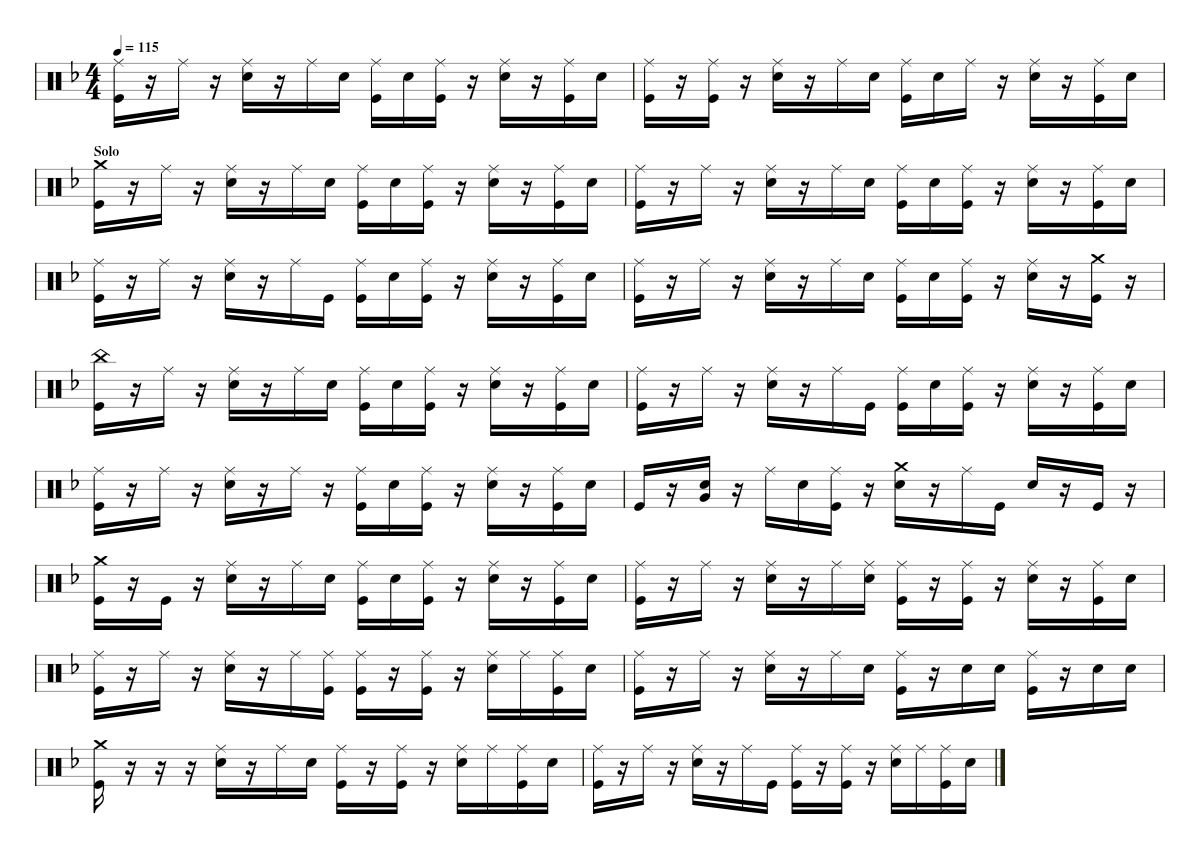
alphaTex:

\hideDynamics
\bracketExtendMode groupsimilarinstruments
\singleTrackTrackNamePolicy hidden
\multiTrackTrackNamePolicy hidden
\firstSystemTrackNameOrientation horizontal
\otherSystemsTrackNameOrientation horizontal
\chordDiagramsInScore
\defaultBarNumberDisplay Hide
\track ("Drumkit" "Drums") {instrument percussion}
\staff {score}
\articulation defaults
\ts (4 4)
\tempo 115
\clef neutral
\ks dminor
("Kick (hit)" "Ride (middle)").16{dy f} r.16 "Ride (middle)".16 r.16 ("Ride (middle)" "Snare (hit) 2").16 r.16 "Ride (middle)".16 "Snare (hit) 2".16 ("Kick (hit)" "Ride (middle)").16 "Snare (hit) 2".16 ("Ride (middle)" "Kick (hit)").16 r.16 ("Ride (middle)" "Snare (hit) 2").16 r.16 ("Ride (middle)" "Kick (hit)").16 "Snare (hit) 2".16 |
("Kick (hit)" "Ride (middle)").16 r.16 ("Ride (middle)" "Kick (hit)").16 r.16 ("Snare (hit) 2" "Ride (middle)").16 r.16 "Ride (middle)".16 "Snare (hit) 2".16 ("Kick (hit)" "Ride (middle)").16 "Snare (hit) 2".16 "Ride (middle)".16 r.16 ("Snare (hit) 2" "Ride (middle)").16 r.16 ("Ride (middle)" "Kick (hit)").16 "Snare (hit) 2".16 |
\section ("" "Solo")
("Kick (hit)" "Crash medium (hit)").16 r.16 "Ride (middle)".16 r.16 ("Ride (middle)" "Snare (hit) 2").16 r.16 "Ride (middle)".16 "Snare (hit) 2".16 ("Kick (hit)" "Ride (middle)").16 "Snare (hit) 2".16 ("Ride (middle)" "Kick (hit)").16 r.16 ("Ride (middle)" "Snare (hit) 2").16 r.16 ("Ride (middle)" "Kick (hit)").16 "Snare (hit) 2".16 |
("Kick (hit)" "Ride (middle)").16 r.16 "Ride (middle)".16 r.16 ("Snare (hit) 2" "Ride (middle)").16 r.16 "Ride (middle)".16 "Snare (hit) 2".16 ("Ride (middle)" "Kick (hit)").16 "Snare (hit) 2".16 ("Ride (middle)" "Kick (hit)").16 r.16 ("Ride (middle)" "Snare (hit) 2").16 r.16 ("Ride (middle)" "Kick (hit)").16 "Snare (hit) 2".16 |
("Kick (hit)" "Ride (middle)").16 r.16 "Ride (middle)".16 r.16 ("Snare (hit) 2" "Ride (middle)").16 r.16 "Ride (middle)".16 "Kick (hit)".16 ("Ride (middle)" "Kick (hit)").16 "Snare (hit) 2".16 ("Kick (hit)" "Ride (middle)").16 r.16 ("Snare (hit) 2" "Ride (middle)").16 r.16 ("Kick (hit)" "Ride (middle)").16 "Snare (hit) 2".16 |
("Ride (middle)" "Kick (hit)").16 r.16 "Ride (middle)".16 r.16 ("Snare (hit) 2" "Ride (middle)").16 r.16 "Ride (middle)".16 "Snare (hit) 2".16 ("Kick (hit)" "Ride (middle)").16 "Snare (hit) 2".16 ("Ride (middle)" "Kick (hit)").16 r.16 ("Snare (hit) 2" "Ride (middle)").16 r.16 ("Kick (hit)" "Crash medium (hit)").16 r.16 |
("China (hit)" "Kick (hit)").16 r.16 "Ride (middle)".16 r.16 ("Ride (middle)" "Snare (hit) 2").16 r.16 "Ride (middle)".16 "Snare (hit) 2".16 ("Kick (hit)" "Ride (middle)").16 "Snare (hit) 2".16 ("Kick (hit)" "Ride (middle)").16 r.16 ("Ride (middle)" "Snare (hit) 2").16 r.16 ("Ride (middle)" "Kick (hit)").16 "Snare (hit) 2".16 |
("Ride (middle)" "Kick (hit)").16 r.16 "Ride (middle)".16 r.16 ("Ride (middle)" "Snare (hit) 2").16 r.16 "Ride (middle)".16 "Kick (hit)".16 ("Ride (middle)" "Kick (hit)").16 "Snare (hit) 2".16 ("Kick (hit)" "Ride (middle)").16 r.16 ("Snare (hit) 2" "Ride (middle)").16 r.16 ("Kick (hit)" "Ride (middle)").16 "Snare (hit) 2".16 |
("Ride (middle)" "Kick (hit)").16 r.16 "Ride (middle)".16 r.16 ("Snare (hit) 2" "Ride (middle)").16 r.16 "Ride (middle)".16 r.16 ("Ride (middle)" "Kick (hit)").16 "Snare (hit) 2".16 ("Kick (hit)" "Ride (middle)").16 r.16 ("Ride (middle)" "Snare (hit) 2").16 r.16 ("Ride (middle)" "Kick (hit)").16 "Snare (hit) 2".16 |
"Kick (hit)".16 r.16 ("Very Low Tom (hit)" "Snare (hit) 2").16 r.16 "Ride (middle)".16 "Snare (hit) 2".16 ("Ride (middle)" "Kick (hit)").16 r.16 ("Crash medium (hit)" "Snare (hit) 2").16 r.16 "Ride (middle)".16 "Kick (hit)".16 "Snare (hit) 2".16 r.16 "Kick (hit)".16 r.16 |
("Crash medium (hit)" "Kick (hit)").16 r.16 "Kick (hit)".16 r.16 ("Ride (middle)" "Snare (hit) 2").16 r.16 "Ride (middle)".16 "Snare (hit) 2".16 ("Ride (middle)" "Kick (hit)").16 "Snare (hit) 2".16 ("Kick (hit)" "Ride (middle)").16 r.16 ("Snare (hit) 2" "Ride (middle)").16 r.16 ("Ride (middle)" "Kick (hit)").16 "Snare (hit) 2".16 |
("Kick (hit)" "Ride (middle)").16 r.16 "Ride (middle)".16 r.16 ("Ride (middle)" "Snare (hit) 2").16 r.16 "Ride (middle)".16 ("Ride (middle)" "Snare (hit) 2").16 ("Ride (middle)" "Kick (hit)").16 r.16 ("Kick (hit)" "Ride (middle)").16 r.16 ("Snare (hit) 2" "Ride (middle)").16 r.16 ("Kick (hit)" "Ride (middle)").16 "Snare (hit) 2".16 |
("Ride (middle)" "Kick (hit)").16 r.16 "Ride (middle)".16 r.16 ("Snare (hit) 2" "Ride (middle)").16 r.16 "Ride (middle)".16 ("Ride (middle)" "Kick (hit)").16 ("Ride (middle)" "Kick (hit)").16 r.16 ("Kick (hit)" "Ride (middle)").16 r.16 ("Ride (middle)" "Snare (hit) 2").16 "Ride (middle)".16 ("Ride (middle)" "Kick (hit)").16 "Snare (hit) 2".16 |
("Ride (middle)" "Kick (hit)").16 r.16 "Ride (middle)".16 r.16 ("Snare (hit) 2" "Ride (middle)").16 r.16 "Ride (middle)".16 "Snare (hit) 2".16 ("Ride (middle)" "Kick (hit)").16 r.16 "Snare (hit) 2".16 "Snare (hit) 2".16 ("Ride (middle)" "Kick (hit)").16 r.16 "Snare (hit) 2".16 "Snare (hit) 2".16 |
("Crash medium (hit)" "Kick (hit)").16 r.16 r.16 r.16 ("Snare (hit) 2" "Ride (middle)").16 r.16 "Ride (middle)".16 "Snare (hit) 2".16 ("Kick (hit)" "Ride (middle)").16 r.16 ("Ride (middle)" "Kick (hit)").16 r.16 ("Snare (hit) 2" "Ride (middle)").16 "Ride (middle)".16 ("Ride (middle)" "Kick (hit)").16 "Snare (hit) 2".16 |
("Ride (middle)" "Kick (hit)").16 r.16 "Ride (middle)".16 r.16 ("Snare (hit) 2" "Ride (middle)").16 r.16 "Ride (middle)".16 "Kick (hit)".16 ("Kick (hit)" "Ride (middle)").16 r.16 ("Kick (hit)" "Ride (middle)").16 r.16 ("Ride (middle)" "Snare (hit) 2").16 "Ride (middle)".16 ("Ride (middle)" "Kick (hit)").16 "Snare (hit) 2".16
